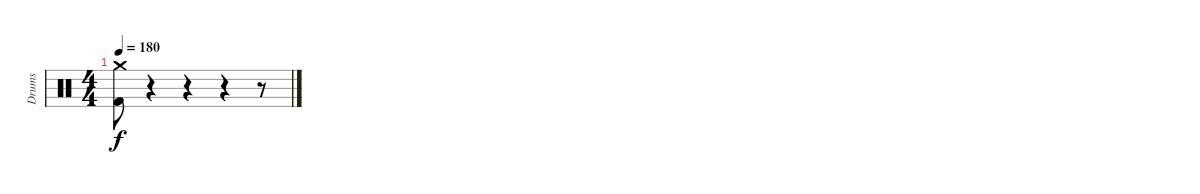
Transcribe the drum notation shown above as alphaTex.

\track ("Drums" "Drums") {instrument percussion}
\staff {score}
\articulation defaults
\ts (4 4)
\tempo 180
\clef neutral
\ks c
("Kick (hit) 2" "Crash medium (hit)").8{dy f} r.4 r.4 r.4 r.8
